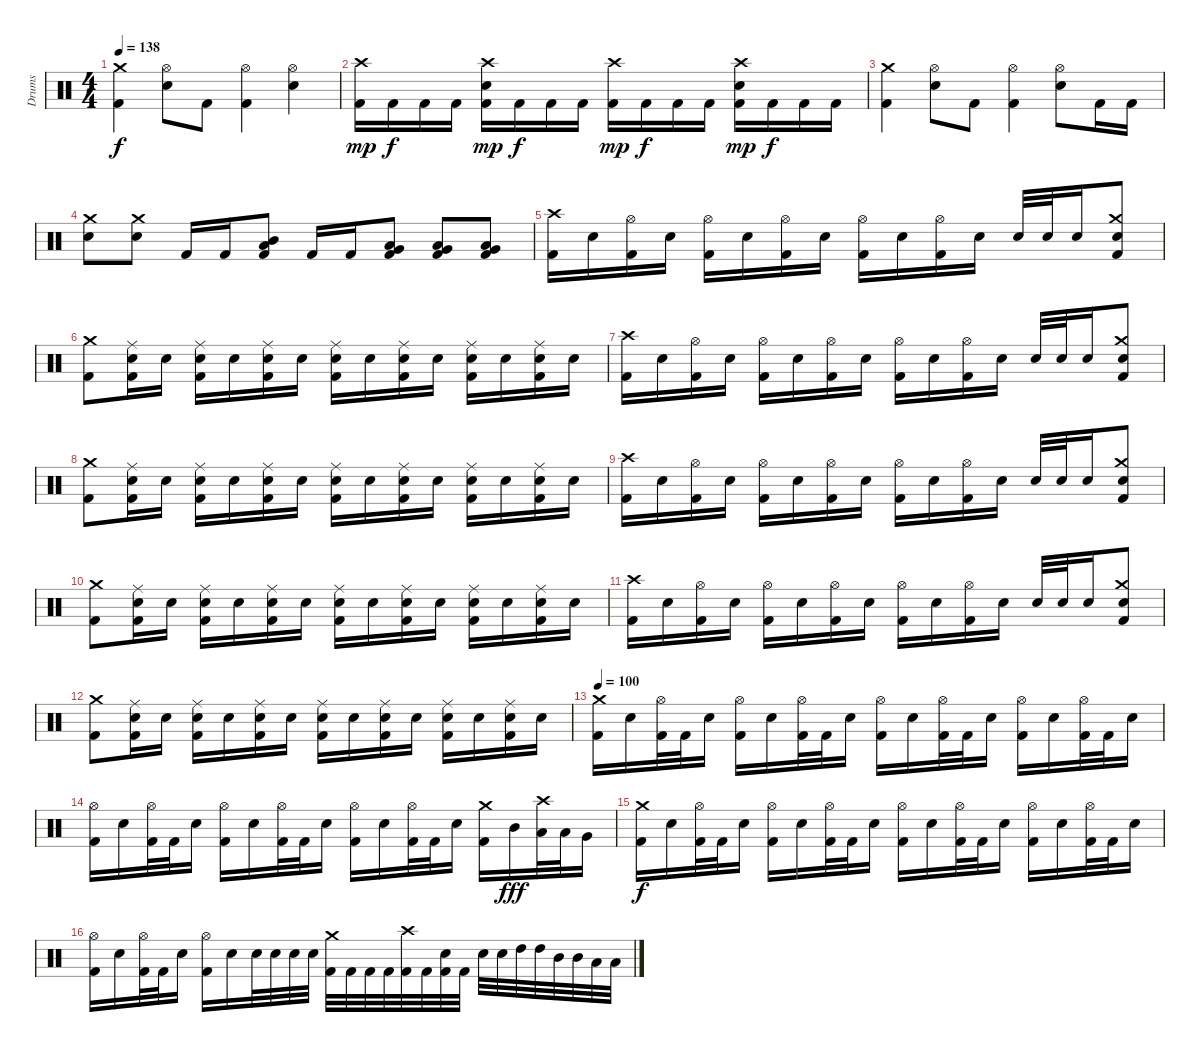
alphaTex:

\track ("Drums" "Drums") {instrument percussion}
\staff {score}
\articulation defaults
\ts (4 4)
\tempo 138
\clef neutral
\ks c
("Kick (hit) 2" "Crash medium (hit)").4{dy f} ("Electric Snare (hit)" "Hi-Hat (open)").8 "Kick (hit) 2".8 ("Kick (hit) 2" "Hi-Hat (open)").4 ("Electric Snare (hit)" "Hi-Hat (open)").4 |
("Kick (hit) 2" "Crash high (hit)").16{dy mp} "Kick (hit) 2".16{dy f} "Kick (hit) 2".16 "Kick (hit) 2".16 ("Kick (hit) 2" "Electric Snare (hit)" "Crash high (hit)").16{dy mp} "Kick (hit) 2".16{dy f} "Kick (hit) 2".16 "Kick (hit) 2".16 ("Kick (hit) 2" "Crash high (hit)").16{dy mp} "Kick (hit) 2".16{dy f} "Kick (hit) 2".16 "Kick (hit) 2".16 ("Kick (hit) 2" "Electric Snare (hit)" "Crash high (hit)").16{dy mp} "Kick (hit) 2".16{dy f} "Kick (hit) 2".16 "Kick (hit) 2".16 |
("Kick (hit) 2" "Crash medium (hit)").4 ("Electric Snare (hit)" "Hi-Hat (open)").8 "Kick (hit) 2".8 ("Kick (hit) 2" "Hi-Hat (open)").4 ("Electric Snare (hit)" "Hi-Hat (open)").8 "Kick (hit) 2".16 "Kick (hit) 2".16 |
("Electric Snare (hit)" "Crash medium (hit)").8 ("Electric Snare (hit)" "Crash medium (hit)").8 "Kick (hit) 2".16 "Kick (hit) 2".16 ("Kick (hit) 2" "Mid Tom (hit)" "Low Tom (hit)").8 "Kick (hit) 2".16 "Kick (hit) 2".16 ("Kick (hit) 2" "Low Tom (hit)" "Very Low Tom (hit)").8 ("Kick (hit) 2" "Very Low Tom (hit)" "Low Floor Tom (hit)").8 ("Kick (hit) 2" "Very Low Tom (hit)" "Low Floor Tom (hit)").8 |
("Kick (hit) 2" "Crash high (hit)").16 "Electric Snare (hit)".16 ("Kick (hit) 2" "Hi-Hat (open)").16 "Electric Snare (hit)".16 ("Kick (hit) 2" "Hi-Hat (open)").16 "Electric Snare (hit)".16 ("Kick (hit) 2" "Hi-Hat (open)").16 "Electric Snare (hit)".16 ("Kick (hit) 2" "Hi-Hat (open)").16 "Electric Snare (hit)".16 ("Kick (hit) 2" "Hi-Hat (open)").16 "Electric Snare (hit)".16 "Electric Snare (hit)".32 "Electric Snare (hit)".32 "Electric Snare (hit)".16 ("Kick (hit) 2" "Electric Snare (hit)" "Crash medium (hit)").8 |
("Kick (hit) 2" "Crash medium (hit)").8 ("Kick (hit) 2" "Electric Snare (hit)" "Ride (middle)").16 "Electric Snare (hit)".16 ("Kick (hit) 2" "Electric Snare (hit)" "Ride (middle)").16 "Electric Snare (hit)".16 ("Kick (hit) 2" "Electric Snare (hit)" "Ride (middle)").16 "Electric Snare (hit)".16 ("Kick (hit) 2" "Electric Snare (hit)" "Ride (middle)").16 "Electric Snare (hit)".16 ("Kick (hit) 2" "Electric Snare (hit)" "Ride (middle)").16 "Electric Snare (hit)".16 ("Kick (hit) 2" "Electric Snare (hit)" "Ride (middle)").16 "Electric Snare (hit)".16 ("Kick (hit) 2" "Electric Snare (hit)" "Ride (middle)").16 "Electric Snare (hit)".16 |
("Kick (hit) 2" "Crash high (hit)").16 "Electric Snare (hit)".16 ("Kick (hit) 2" "Hi-Hat (open)").16 "Electric Snare (hit)".16 ("Kick (hit) 2" "Hi-Hat (open)").16 "Electric Snare (hit)".16 ("Kick (hit) 2" "Hi-Hat (open)").16 "Electric Snare (hit)".16 ("Kick (hit) 2" "Hi-Hat (open)").16 "Electric Snare (hit)".16 ("Kick (hit) 2" "Hi-Hat (open)").16 "Electric Snare (hit)".16 "Electric Snare (hit)".32 "Electric Snare (hit)".32 "Electric Snare (hit)".16 ("Kick (hit) 2" "Electric Snare (hit)" "Crash medium (hit)").8 |
("Kick (hit) 2" "Crash medium (hit)").8 ("Kick (hit) 2" "Electric Snare (hit)" "Ride (middle)").16 "Electric Snare (hit)".16 ("Kick (hit) 2" "Electric Snare (hit)" "Ride (middle)").16 "Electric Snare (hit)".16 ("Kick (hit) 2" "Electric Snare (hit)" "Ride (middle)").16 "Electric Snare (hit)".16 ("Kick (hit) 2" "Electric Snare (hit)" "Ride (middle)").16 "Electric Snare (hit)".16 ("Kick (hit) 2" "Electric Snare (hit)" "Ride (middle)").16 "Electric Snare (hit)".16 ("Kick (hit) 2" "Electric Snare (hit)" "Ride (middle)").16 "Electric Snare (hit)".16 ("Kick (hit) 2" "Electric Snare (hit)" "Ride (middle)").16 "Electric Snare (hit)".16 |
("Kick (hit) 2" "Crash high (hit)").16 "Electric Snare (hit)".16 ("Kick (hit) 2" "Hi-Hat (open)").16 "Electric Snare (hit)".16 ("Kick (hit) 2" "Hi-Hat (open)").16 "Electric Snare (hit)".16 ("Kick (hit) 2" "Hi-Hat (open)").16 "Electric Snare (hit)".16 ("Kick (hit) 2" "Hi-Hat (open)").16 "Electric Snare (hit)".16 ("Kick (hit) 2" "Hi-Hat (open)").16 "Electric Snare (hit)".16 "Electric Snare (hit)".32 "Electric Snare (hit)".32 "Electric Snare (hit)".16 ("Kick (hit) 2" "Electric Snare (hit)" "Crash medium (hit)").8 |
("Kick (hit) 2" "Crash medium (hit)").8 ("Kick (hit) 2" "Electric Snare (hit)" "Ride (middle)").16 "Electric Snare (hit)".16 ("Kick (hit) 2" "Electric Snare (hit)" "Ride (middle)").16 "Electric Snare (hit)".16 ("Kick (hit) 2" "Electric Snare (hit)" "Ride (middle)").16 "Electric Snare (hit)".16 ("Kick (hit) 2" "Electric Snare (hit)" "Ride (middle)").16 "Electric Snare (hit)".16 ("Kick (hit) 2" "Electric Snare (hit)" "Ride (middle)").16 "Electric Snare (hit)".16 ("Kick (hit) 2" "Electric Snare (hit)" "Ride (middle)").16 "Electric Snare (hit)".16 ("Kick (hit) 2" "Electric Snare (hit)" "Ride (middle)").16 "Electric Snare (hit)".16 |
("Kick (hit) 2" "Crash high (hit)").16 "Electric Snare (hit)".16 ("Kick (hit) 2" "Hi-Hat (open)").16 "Electric Snare (hit)".16 ("Kick (hit) 2" "Hi-Hat (open)").16 "Electric Snare (hit)".16 ("Kick (hit) 2" "Hi-Hat (open)").16 "Electric Snare (hit)".16 ("Kick (hit) 2" "Hi-Hat (open)").16 "Electric Snare (hit)".16 ("Kick (hit) 2" "Hi-Hat (open)").16 "Electric Snare (hit)".16 "Electric Snare (hit)".32 "Electric Snare (hit)".32 "Electric Snare (hit)".16 ("Kick (hit) 2" "Electric Snare (hit)" "Crash medium (hit)").8 |
("Kick (hit) 2" "Crash medium (hit)").8 ("Kick (hit) 2" "Electric Snare (hit)" "Ride (middle)").16 "Electric Snare (hit)".16 ("Kick (hit) 2" "Electric Snare (hit)" "Ride (middle)").16 "Electric Snare (hit)".16 ("Kick (hit) 2" "Electric Snare (hit)" "Ride (middle)").16 "Electric Snare (hit)".16 ("Kick (hit) 2" "Electric Snare (hit)" "Ride (middle)").16 "Electric Snare (hit)".16 ("Kick (hit) 2" "Electric Snare (hit)" "Ride (middle)").16 "Electric Snare (hit)".16 ("Kick (hit) 2" "Electric Snare (hit)" "Ride (middle)").16 "Electric Snare (hit)".16 ("Kick (hit) 2" "Electric Snare (hit)" "Ride (middle)").16 "Electric Snare (hit)".16 |
\tempo 100
("Kick (hit) 2" "Crash medium (hit)").16 "Electric Snare (hit)".16 ("Kick (hit) 2" "Hi-Hat (open)").32 "Kick (hit) 2".32 "Electric Snare (hit)".16 ("Kick (hit) 2" "Hi-Hat (open)").16 "Electric Snare (hit)".16 ("Kick (hit) 2" "Hi-Hat (open)").32 "Kick (hit) 2".32 "Electric Snare (hit)".16 ("Kick (hit) 2" "Hi-Hat (open)").16 "Electric Snare (hit)".16 ("Kick (hit) 2" "Hi-Hat (open)").32 "Kick (hit) 2".32 "Electric Snare (hit)".16 ("Kick (hit) 2" "Hi-Hat (open)").16 "Electric Snare (hit)".16 ("Kick (hit) 2" "Hi-Hat (open)").32 "Kick (hit) 2".32 "Electric Snare (hit)".16 |
("Kick (hit) 2" "Hi-Hat (open)").16 "Electric Snare (hit)".16 ("Kick (hit) 2" "Hi-Hat (open)").32 "Kick (hit) 2".32 "Electric Snare (hit)".16 ("Kick (hit) 2" "Hi-Hat (open)").16 "Electric Snare (hit)".16 ("Kick (hit) 2" "Hi-Hat (open)").32 "Kick (hit) 2".32 "Electric Snare (hit)".16 ("Kick (hit) 2" "Hi-Hat (open)").16 "Electric Snare (hit)".16 ("Kick (hit) 2" "Hi-Hat (open)").32 "Kick (hit) 2".32 "Electric Snare (hit)".16 ("Kick (hit) 2" "Crash medium (hit)").16 "Mid Tom (hit)".16{dy fff} ("Low Tom (hit)" "Crash high (hit)").32 "Low Tom (hit)".32 "Very Low Tom (hit)".16 |
("Kick (hit) 2" "Crash medium (hit)").16{dy f} "Electric Snare (hit)".16 ("Kick (hit) 2" "Hi-Hat (open)").32 "Kick (hit) 2".32 "Electric Snare (hit)".16 ("Kick (hit) 2" "Hi-Hat (open)").16 "Electric Snare (hit)".16 ("Kick (hit) 2" "Hi-Hat (open)").32 "Kick (hit) 2".32 "Electric Snare (hit)".16 ("Kick (hit) 2" "Hi-Hat (open)").16 "Electric Snare (hit)".16 ("Kick (hit) 2" "Hi-Hat (open)").32 "Kick (hit) 2".32 "Electric Snare (hit)".16 ("Kick (hit) 2" "Hi-Hat (open)").16 "Electric Snare (hit)".16 ("Kick (hit) 2" "Hi-Hat (open)").32 "Kick (hit) 2".32 "Electric Snare (hit)".16 |
("Kick (hit) 2" "Hi-Hat (open)").16 "Electric Snare (hit)".16 ("Kick (hit) 2" "Hi-Hat (open)").32 "Kick (hit) 2".32 "Electric Snare (hit)".16 ("Kick (hit) 2" "Hi-Hat (open)").16 "Electric Snare (hit)".16 "Electric Snare (hit)".32 "Electric Snare (hit)".32 "Electric Snare (hit)".32 "Electric Snare (hit)".32 ("Kick (hit) 2" "Crash medium (hit)").32 "Kick (hit) 2".32 "Kick (hit) 2".32 "Kick (hit) 2".32 ("Kick (hit) 2" "Crash high (hit)").32 "Kick (hit) 2".32 ("Kick (hit) 2" "Electric Snare (hit)").32 "Kick (hit) 2".32 "Electric Snare (hit)".32 "Electric Snare (hit)".32 "High Tom (hit)".32 "High Tom (hit)".32 "Mid Tom (hit)".32 "Mid Tom (hit)".32 "Low Tom (hit)".32 "Low Tom (hit)".32
